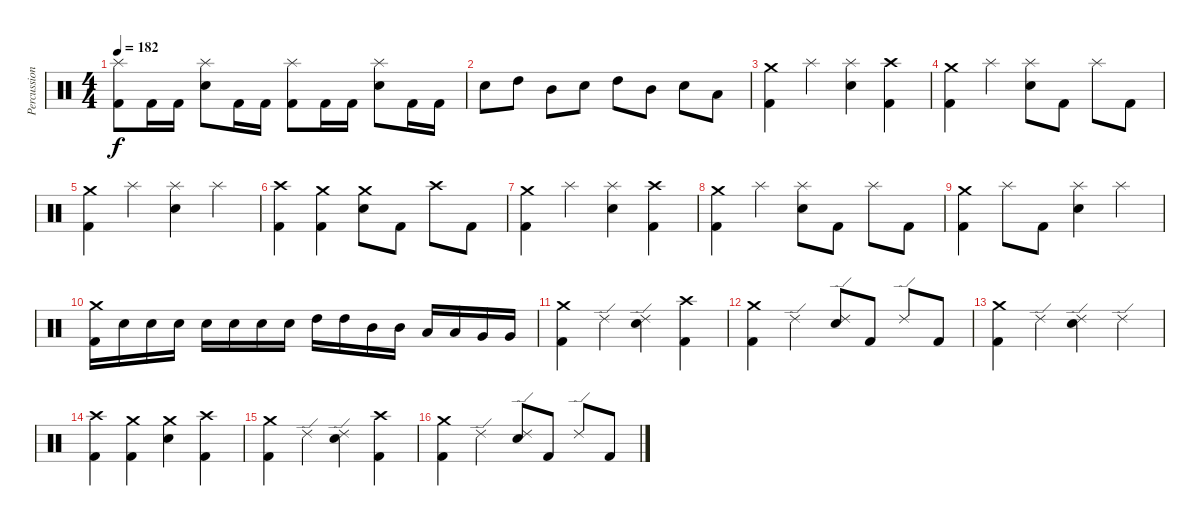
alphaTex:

\track ("Percussion" "Percussion") {instrument percussion}
\staff {score}
\articulation defaults
\ts (4 4)
\tempo 182
\clef neutral
\ks c
("Splash (hit)" "Kick (hit) 2").8{dy f} "Kick (hit) 2".16 "Kick (hit) 2".16 ("Splash (hit)" "Electric Snare (hit)").8 "Kick (hit) 2".16 "Kick (hit) 2".16 ("Splash (hit)" "Kick (hit) 2").8 "Kick (hit) 2".16 "Kick (hit) 2".16 ("Splash (hit)" "Electric Snare (hit)").8 "Kick (hit) 2".16 "Kick (hit) 2".16 |
"Electric Snare (hit)".8 "High Tom (hit)".8 "Mid Tom (hit)".8 "Electric Snare (hit)".8 "High Tom (hit)".8 "Mid Tom (hit)".8 "Electric Snare (hit)".8 "Low Floor Tom (hit)".8 |
("Crash medium (hit)" "Kick (hit) 2").4 "Splash (hit)".4 ("Splash (hit)" "Electric Snare (hit)").4 ("Crash high (hit)" "Kick (hit) 2").4 |
("Crash medium (hit)" "Kick (hit) 2").4 "Splash (hit)".4 ("Splash (hit)" "Electric Snare (hit)").8 "Kick (hit) 2".8 "Splash (hit)".8 "Kick (hit) 2".8 |
("Crash medium (hit)" "Kick (hit) 2").4 "Splash (hit)".4 ("Splash (hit)" "Electric Snare (hit)").4 "Splash (hit)".4 |
("Crash high (hit)" "Kick (hit) 2").4 ("Crash medium (hit)" "Kick (hit) 2").4 ("Crash medium (hit)" "Electric Snare (hit)").8 "Kick (hit) 2".8 "Crash high (hit)".8 "Kick (hit) 2".8 |
("Crash medium (hit)" "Kick (hit) 2").4 "Splash (hit)".4 ("Splash (hit)" "Electric Snare (hit)").4 ("Crash high (hit)" "Kick (hit) 2").4 |
("Crash medium (hit)" "Kick (hit) 2").4 "Splash (hit)".4 ("Splash (hit)" "Electric Snare (hit)").8 "Kick (hit) 2".8 "Splash (hit)".8 "Kick (hit) 2".8 |
("Crash medium (hit)" "Kick (hit) 2").4 "Splash (hit)".8 "Kick (hit) 2".8 ("Splash (hit)" "Electric Snare (hit)").4 "Splash (hit)".4 |
("Crash medium (hit)" "Kick (hit) 2").16 "Electric Snare (hit)".16 "Electric Snare (hit)".16 "Electric Snare (hit)".16 "Electric Snare (hit)".16 "Electric Snare (hit)".16 "Electric Snare (hit)".16 "Electric Snare (hit)".16 "High Tom (hit)".16 "High Tom (hit)".16 "Mid Tom (hit)".16 "Mid Tom (hit)".16 "Low Tom (hit)".16 "Low Tom (hit)".16 "Very Low Tom (hit)".16 "Very Low Tom (hit)".16 |
("Crash medium (hit)" "Kick (hit) 2").4 "Ride (edge) 2".4 ("Ride (edge) 2" "Electric Snare (hit)").4 ("Crash high (hit)" "Kick (hit) 2").4 |
("Crash medium (hit)" "Kick (hit) 2").4 "Ride (edge) 2".4 ("Ride (edge) 2" "Electric Snare (hit)").8 "Kick (hit) 2".8 "Ride (edge) 2".8 "Kick (hit) 2".8 |
("Crash medium (hit)" "Kick (hit) 2").4 "Ride (edge) 2".4 ("Ride (edge) 2" "Electric Snare (hit)").4 "Ride (edge) 2".4 |
("Crash high (hit)" "Kick (hit) 2").4 ("Crash medium (hit)" "Kick (hit) 2").4 ("Crash medium (hit)" "Electric Snare (hit)").4 ("Crash high (hit)" "Kick (hit) 2").4 |
("Crash medium (hit)" "Kick (hit) 2").4 "Ride (edge) 2".4 ("Ride (edge) 2" "Electric Snare (hit)").4 ("Crash high (hit)" "Kick (hit) 2").4 |
("Crash medium (hit)" "Kick (hit) 2").4 "Ride (edge) 2".4 ("Ride (edge) 2" "Electric Snare (hit)").8 "Kick (hit) 2".8 "Ride (edge) 2".8 "Kick (hit) 2".8
